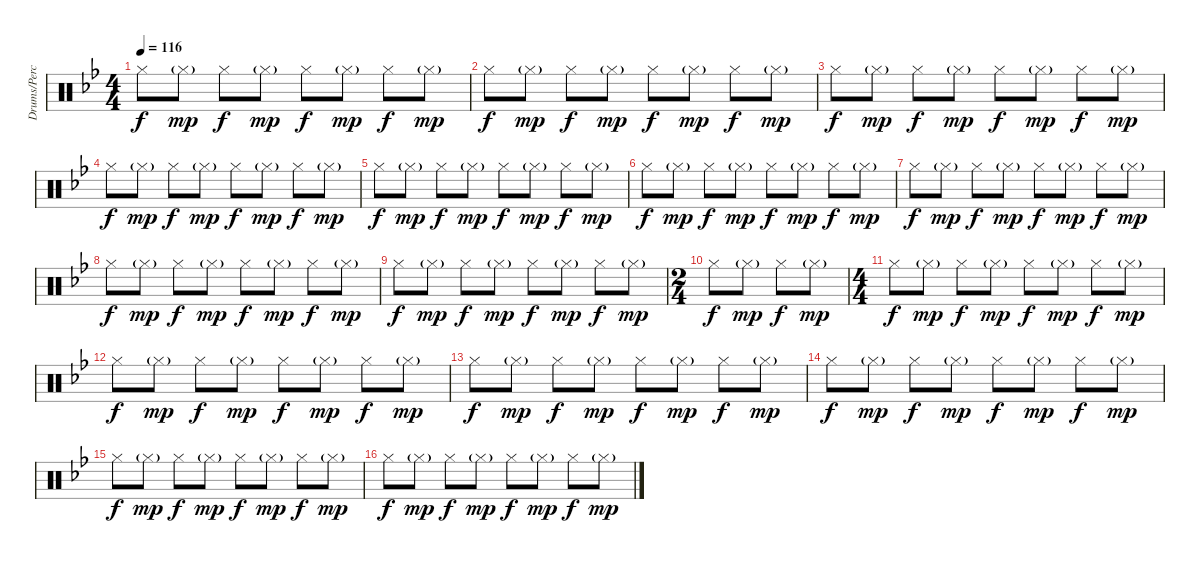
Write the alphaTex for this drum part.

\track ("Drums/Percussion (Bengerg)" "Drums/Perc") {instrument percussion}
\staff {score}
\articulation defaults
\ts (4 4)
\tempo 116
\clef neutral
\ks bb "Hi-Hat (closed)".8{dy f} "Hi-Hat (closed)"{g}.8{dy mp} "Hi-Hat (closed)".8{dy f} "Hi-Hat (closed)"{g}.8{dy mp} "Hi-Hat (closed)".8{dy f} "Hi-Hat (closed)"{g}.8{dy mp} "Hi-Hat (closed)".8{dy f} "Hi-Hat (closed)"{g}.8{dy mp}
|
"Hi-Hat (closed)".8{dy f} "Hi-Hat (closed)"{g}.8{dy mp} "Hi-Hat (closed)".8{dy f} "Hi-Hat (closed)"{g}.8{dy mp} "Hi-Hat (closed)".8{dy f} "Hi-Hat (closed)"{g}.8{dy mp} "Hi-Hat (closed)".8{dy f} "Hi-Hat (closed)"{g}.8{dy mp} |
"Hi-Hat (closed)".8{dy f} "Hi-Hat (closed)"{g}.8{dy mp} "Hi-Hat (closed)".8{dy f} "Hi-Hat (closed)"{g}.8{dy mp} "Hi-Hat (closed)".8{dy f} "Hi-Hat (closed)"{g}.8{dy mp} "Hi-Hat (closed)".8{dy f} "Hi-Hat (closed)"{g}.8{dy mp} |
"Hi-Hat (closed)".8{dy f} "Hi-Hat (closed)"{g}.8{dy mp} "Hi-Hat (closed)".8{dy f} "Hi-Hat (closed)"{g}.8{dy mp} "Hi-Hat (closed)".8{dy f} "Hi-Hat (closed)"{g}.8{dy mp} "Hi-Hat (closed)".8{dy f} "Hi-Hat (closed)"{g}.8{dy mp} |
"Hi-Hat (closed)".8{dy f} "Hi-Hat (closed)"{g}.8{dy mp} "Hi-Hat (closed)".8{dy f} "Hi-Hat (closed)"{g}.8{dy mp} "Hi-Hat (closed)".8{dy f} "Hi-Hat (closed)"{g}.8{dy mp} "Hi-Hat (closed)".8{dy f} "Hi-Hat (closed)"{g}.8{dy mp} |
"Hi-Hat (closed)".8{dy f} "Hi-Hat (closed)"{g}.8{dy mp} "Hi-Hat (closed)".8{dy f} "Hi-Hat (closed)"{g}.8{dy mp} "Hi-Hat (closed)".8{dy f} "Hi-Hat (closed)"{g}.8{dy mp} "Hi-Hat (closed)".8{dy f} "Hi-Hat (closed)"{g}.8{dy mp} |
"Hi-Hat (closed)".8{dy f} "Hi-Hat (closed)"{g}.8{dy mp} "Hi-Hat (closed)".8{dy f} "Hi-Hat (closed)"{g}.8{dy mp} "Hi-Hat (closed)".8{dy f} "Hi-Hat (closed)"{g}.8{dy mp} "Hi-Hat (closed)".8{dy f} "Hi-Hat (closed)"{g}.8{dy mp} |
"Hi-Hat (closed)".8{dy f} "Hi-Hat (closed)"{g}.8{dy mp} "Hi-Hat (closed)".8{dy f} "Hi-Hat (closed)"{g}.8{dy mp} "Hi-Hat (closed)".8{dy f} "Hi-Hat (closed)"{g}.8{dy mp} "Hi-Hat (closed)".8{dy f} "Hi-Hat (closed)"{g}.8{dy mp} |
"Hi-Hat (closed)".8{dy f} "Hi-Hat (closed)"{g}.8{dy mp} "Hi-Hat (closed)".8{dy f} "Hi-Hat (closed)"{g}.8{dy mp} "Hi-Hat (closed)".8{dy f} "Hi-Hat (closed)"{g}.8{dy mp} "Hi-Hat (closed)".8{dy f} "Hi-Hat (closed)"{g}.8{dy mp} |
\ts (2 4)
"Hi-Hat (closed)".8{dy f} "Hi-Hat (closed)"{g}.8{dy mp} "Hi-Hat (closed)".8{dy f} "Hi-Hat (closed)"{g}.8{dy mp} |
\ts (4 4)
"Hi-Hat (closed)".8{dy f} "Hi-Hat (closed)"{g}.8{dy mp} "Hi-Hat (closed)".8{dy f} "Hi-Hat (closed)"{g}.8{dy mp} "Hi-Hat (closed)".8{dy f} "Hi-Hat (closed)"{g}.8{dy mp} "Hi-Hat (closed)".8{dy f} "Hi-Hat (closed)"{g}.8{dy mp} |
"Hi-Hat (closed)".8{dy f} "Hi-Hat (closed)"{g}.8{dy mp} "Hi-Hat (closed)".8{dy f} "Hi-Hat (closed)"{g}.8{dy mp} "Hi-Hat (closed)".8{dy f} "Hi-Hat (closed)"{g}.8{dy mp} "Hi-Hat (closed)".8{dy f} "Hi-Hat (closed)"{g}.8{dy mp} |
"Hi-Hat (closed)".8{dy f} "Hi-Hat (closed)"{g}.8{dy mp} "Hi-Hat (closed)".8{dy f} "Hi-Hat (closed)"{g}.8{dy mp} "Hi-Hat (closed)".8{dy f} "Hi-Hat (closed)"{g}.8{dy mp} "Hi-Hat (closed)".8{dy f} "Hi-Hat (closed)"{g}.8{dy mp} |
"Hi-Hat (closed)".8{dy f} "Hi-Hat (closed)"{g}.8{dy mp} "Hi-Hat (closed)".8{dy f} "Hi-Hat (closed)"{g}.8{dy mp} "Hi-Hat (closed)".8{dy f} "Hi-Hat (closed)"{g}.8{dy mp} "Hi-Hat (closed)".8{dy f} "Hi-Hat (closed)"{g}.8{dy mp} |
"Hi-Hat (closed)".8{dy f} "Hi-Hat (closed)"{g}.8{dy mp} "Hi-Hat (closed)".8{dy f} "Hi-Hat (closed)"{g}.8{dy mp} "Hi-Hat (closed)".8{dy f} "Hi-Hat (closed)"{g}.8{dy mp} "Hi-Hat (closed)".8{dy f} "Hi-Hat (closed)"{g}.8{dy mp} |
"Hi-Hat (closed)".8{dy f} "Hi-Hat (closed)"{g}.8{dy mp} "Hi-Hat (closed)".8{dy f} "Hi-Hat (closed)"{g}.8{dy mp} "Hi-Hat (closed)".8{dy f} "Hi-Hat (closed)"{g}.8{dy mp} "Hi-Hat (closed)".8{dy f} "Hi-Hat (closed)"{g}.8{dy mp}
